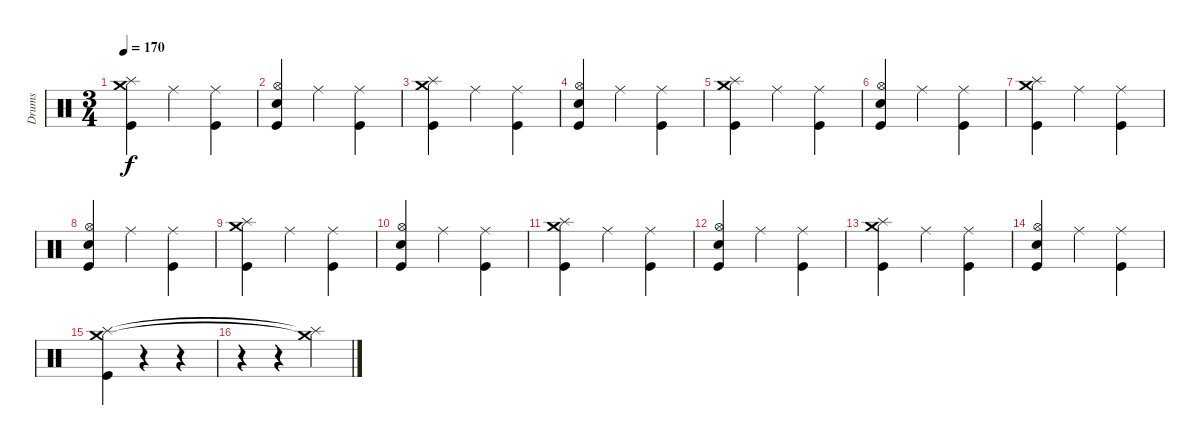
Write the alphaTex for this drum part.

\track ("Drums" "Drums") {instrument percussion}
\staff {score}
\articulation defaults
\ts (3 4)
\tempo 170
\clef neutral
\ks c
("Splash (hit)" "Crash medium (hit)" "Kick (hit)").4{dy f} "Ride (middle)".4 ("Ride (middle)" "Kick (hit)").4 |
("Hi-Hat (open)" "Electric Snare (hit)" "Kick (hit)").4 "Ride (middle)".4 ("Ride (middle)" "Kick (hit)").4 |
("Splash (hit)" "Crash medium (hit)" "Kick (hit)").4 "Ride (middle)".4 ("Ride (middle)" "Kick (hit)").4 |
("Hi-Hat (open)" "Electric Snare (hit)" "Kick (hit)").4 "Ride (middle)".4 ("Ride (middle)" "Kick (hit)").4 |
("Splash (hit)" "Crash medium (hit)" "Kick (hit)").4 "Ride (middle)".4 ("Ride (middle)" "Kick (hit)").4 |
("Hi-Hat (open)" "Electric Snare (hit)" "Kick (hit)").4 "Ride (middle)".4 ("Ride (middle)" "Kick (hit)").4 |
("Splash (hit)" "Crash medium (hit)" "Kick (hit)").4 "Ride (middle)".4 ("Ride (middle)" "Kick (hit)").4 |
("Hi-Hat (open)" "Electric Snare (hit)" "Kick (hit)").4 "Ride (middle)".4 ("Ride (middle)" "Kick (hit)").4 |
("Splash (hit)" "Crash medium (hit)" "Kick (hit)").4 "Ride (middle)".4 ("Ride (middle)" "Kick (hit)").4 |
("Hi-Hat (open)" "Electric Snare (hit)" "Kick (hit)").4 "Ride (middle)".4 ("Ride (middle)" "Kick (hit)").4 |
("Splash (hit)" "Crash medium (hit)" "Kick (hit)").4 "Ride (middle)".4 ("Ride (middle)" "Kick (hit)").4 |
("Hi-Hat (open)" "Electric Snare (hit)" "Kick (hit)").4 "Ride (middle)".4 ("Ride (middle)" "Kick (hit)").4 |
("Splash (hit)" "Crash medium (hit)" "Kick (hit)").4 "Ride (middle)".4 ("Ride (middle)" "Kick (hit)").4 |
("Hi-Hat (open)" "Electric Snare (hit)" "Kick (hit)").4 "Ride (middle)".4 ("Ride (middle)" "Kick (hit)").4 |
("Splash (hit)" "Crash medium (hit)" "Kick (hit)").4 r.4 r.4 |
r.4 r.4 ("Splash (hit)"{t} "Crash medium (hit)"{t}).4
